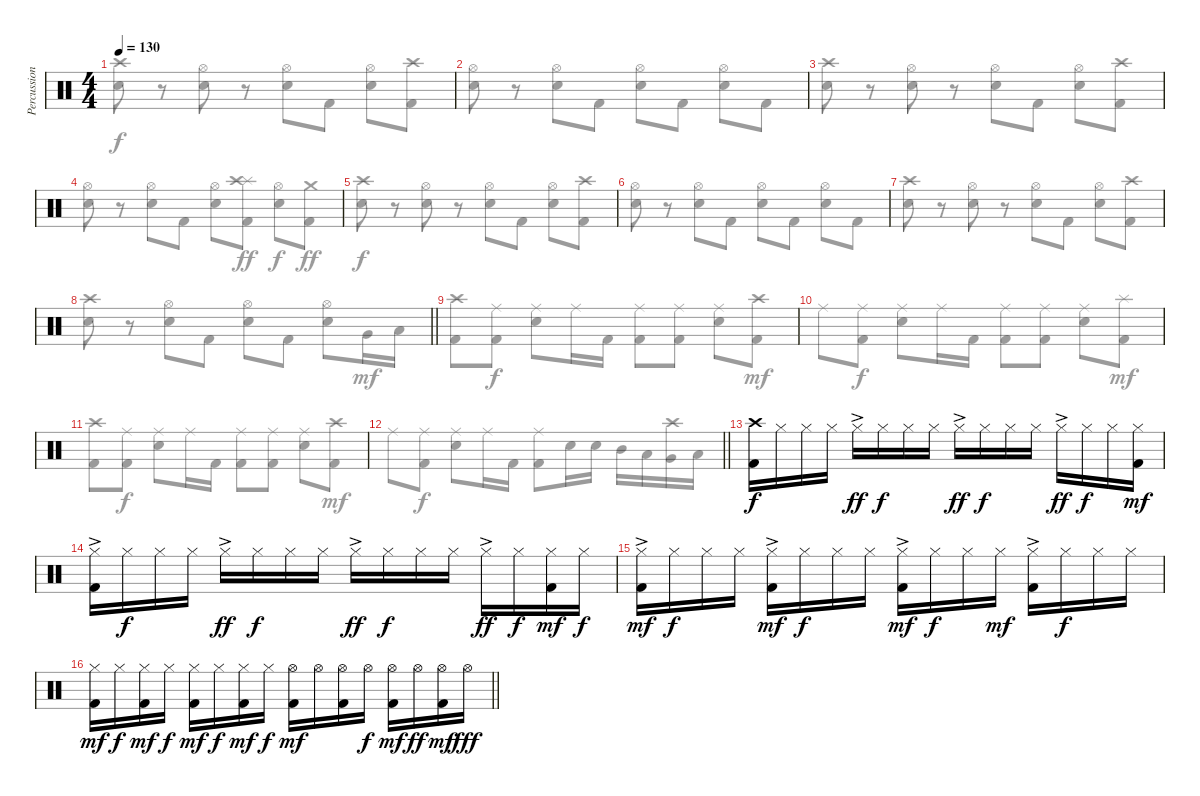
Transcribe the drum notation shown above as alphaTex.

\track ("Percussion" "Percussion") {instrument percussion}
\staff {score}
\articulation defaults
\voice
\ts (4 4)
\tempo 130
\clef neutral
\ks c
|
|
|
|
|
|
|
\barLineRight lightlight
|
|
|
|
\barLineRight lightlight
|
("Crash high (hit)" "Kick (hit) 2").16{dy f} "Hi-Hat (closed)".16 "Hi-Hat (closed)".16 "Hi-Hat (closed)".16 "Hi-Hat (closed)"{ac}.16{dy ff} "Hi-Hat (closed)".16{dy f} "Hi-Hat (closed)".16 "Hi-Hat (closed)".16 "Hi-Hat (closed)"{ac}.16{dy ff} "Hi-Hat (closed)".16{dy f} "Hi-Hat (closed)".16 "Hi-Hat (closed)".16 "Hi-Hat (closed)"{ac}.16{dy ff} "Hi-Hat (closed)".16{dy f} "Hi-Hat (closed)".16 ("Hi-Hat (closed)" "Kick (hit) 2").16{dy mf} |
("Hi-Hat (closed)"{ac} "Kick (hit) 2").16 "Hi-Hat (closed)".16{dy f} "Hi-Hat (closed)".16 "Hi-Hat (closed)".16 "Hi-Hat (closed)"{ac}.16{dy ff} "Hi-Hat (closed)".16{dy f} "Hi-Hat (closed)".16 "Hi-Hat (closed)".16 "Hi-Hat (closed)"{ac}.16{dy ff} "Hi-Hat (closed)".16{dy f} "Hi-Hat (closed)".16 "Hi-Hat (closed)".16 "Hi-Hat (closed)"{ac}.16{dy ff} "Hi-Hat (closed)".16{dy f} ("Hi-Hat (closed)" "Kick (hit) 2").16{dy mf} "Hi-Hat (closed)".16{dy f} |
("Hi-Hat (closed)"{ac} "Kick (hit) 2").16{dy mf} "Hi-Hat (closed)".16{dy f} "Hi-Hat (closed)".16 "Hi-Hat (closed)".16 ("Hi-Hat (closed)"{ac} "Kick (hit) 2").16{dy mf} "Hi-Hat (closed)".16{dy f} "Hi-Hat (closed)".16 "Hi-Hat (closed)".16 ("Hi-Hat (closed)"{ac} "Kick (hit) 2").16{dy mf} "Hi-Hat (closed)".16{dy f} "Hi-Hat (closed)".16 "Hi-Hat (closed)".16{dy mf} ("Hi-Hat (closed)"{ac} "Kick (hit) 2").16 "Hi-Hat (closed)".16{dy f} "Hi-Hat (closed)".16 "Hi-Hat (closed)".16 |
\barLineRight lightlight
("Hi-Hat (closed)" "Kick (hit) 2").16{dy mf} "Hi-Hat (closed)".16{dy f} ("Hi-Hat (closed)" "Kick (hit) 2").16{dy mf} "Hi-Hat (closed)".16{dy f} ("Hi-Hat (closed)" "Kick (hit) 2").16{dy mf} "Hi-Hat (closed)".16{dy f} ("Hi-Hat (closed)" "Kick (hit) 2").16{dy mf} "Hi-Hat (closed)".16{dy f} ("Hi-Hat (open)" "Kick (hit) 2").16{dy mf} "Hi-Hat (open)".16 ("Hi-Hat (open)" "Kick (hit) 2").16 "Hi-Hat (open)".16{dy f} ("Hi-Hat (open)" "Kick (hit) 2").16{dy mf} "Hi-Hat (open)".16{dy ff} ("Hi-Hat (open)" "Kick (hit) 2").16{dy mf} "Hi-Hat (open)".16{dy fff}
\voice
\clef neutral
\ottava regular
\simile none
\ks c
("Crash high (hit)" "Electric Snare (hit)").8{dy f} r.8 ("Hi-Hat (open)" "Electric Snare (hit)").8 r.8 ("Hi-Hat (open)" "Electric Snare (hit)").8 "Kick (hit) 2".8 ("Hi-Hat (open)" "Electric Snare (hit)").8 ("Crash high (hit)" "Kick (hit) 2").8 |
("Hi-Hat (open)" "Electric Snare (hit)").8 r.8 ("Hi-Hat (open)" "Electric Snare (hit)").8 "Kick (hit) 2".8 ("Hi-Hat (open)" "Electric Snare (hit)").8 "Kick (hit) 2".8 ("Hi-Hat (open)" "Electric Snare (hit)").8 "Kick (hit) 2".8 |
("Crash high (hit)" "Electric Snare (hit)").8 r.8 ("Hi-Hat (open)" "Electric Snare (hit)").8 r.8 ("Hi-Hat (open)" "Electric Snare (hit)").8 "Kick (hit) 2".8 ("Hi-Hat (open)" "Electric Snare (hit)").8 ("Crash high (hit)" "Kick (hit) 2").8 |
("Hi-Hat (open)" "Electric Snare (hit)").8 r.8 ("Hi-Hat (open)" "Electric Snare (hit)").8 "Kick (hit) 2".8 ("Hi-Hat (open)" "Electric Snare (hit)").8 ("Splash (hit)" "Crash high (hit)" "Kick (hit) 2").8{dy ff} ("Hi-Hat (open)" "Electric Snare (hit)").8{dy f} ("Crash medium (hit)" "Kick (hit) 2").8{dy ff} |
("Crash high (hit)" "Electric Snare (hit)").8{dy f} r.8 ("Hi-Hat (open)" "Electric Snare (hit)").8 r.8 ("Hi-Hat (open)" "Electric Snare (hit)").8 "Kick (hit) 2".8 ("Hi-Hat (open)" "Electric Snare (hit)").8 ("Crash high (hit)" "Kick (hit) 2").8 |
("Hi-Hat (open)" "Electric Snare (hit)").8 r.8 ("Hi-Hat (open)" "Electric Snare (hit)").8 "Kick (hit) 2".8 ("Hi-Hat (open)" "Electric Snare (hit)").8 "Kick (hit) 2".8 ("Hi-Hat (open)" "Electric Snare (hit)").8 "Kick (hit) 2".8 |
("Crash high (hit)" "Electric Snare (hit)").8 r.8 ("Hi-Hat (open)" "Electric Snare (hit)").8 r.8 ("Hi-Hat (open)" "Electric Snare (hit)").8 "Kick (hit) 2".8 ("Hi-Hat (open)" "Electric Snare (hit)").8 ("Crash high (hit)" "Kick (hit) 2").8 |
\barLineRight lightlight
("Crash high (hit)" "Electric Snare (hit)").8 r.8 ("Hi-Hat (open)" "Electric Snare (hit)").8 "Kick (hit) 2".8 ("Hi-Hat (open)" "Electric Snare (hit)").8 "Kick (hit) 2".8 ("Hi-Hat (open)" "Electric Snare (hit)").8 "Very Low Tom (hit)".16{dy mf} "Low Floor Tom (hit)".16 |
("Crash high (hit)" "Kick (hit) 2").8 ("Ride (middle)" "Kick (hit) 2").8{dy f} ("Ride (middle)" "Electric Snare (hit)").8 "Ride (middle)".16 "Kick (hit) 2".16 ("Ride (middle)" "Kick (hit) 2").8 ("Ride (middle)" "Kick (hit) 2").8 ("Ride (middle)" "Electric Snare (hit)").8 ("Crash high (hit)" "Kick (hit) 2").8{dy mf} |
"Ride (middle)".8 ("Ride (middle)" "Kick (hit) 2").8{dy f} ("Ride (middle)" "Electric Snare (hit)").8 "Ride (middle)".16 "Kick (hit) 2".16 ("Ride (middle)" "Kick (hit) 2").8 ("Ride (middle)" "Kick (hit) 2").8 ("Ride (middle)" "Electric Snare (hit)").8 ("Splash (hit)" "Kick (hit) 2").8{dy mf} |
("Crash high (hit)" "Kick (hit) 2").8 ("Ride (middle)" "Kick (hit) 2").8{dy f} ("Ride (middle)" "Electric Snare (hit)").8 "Ride (middle)".16 "Kick (hit) 2".16 ("Ride (middle)" "Kick (hit) 2").8 ("Ride (middle)" "Kick (hit) 2").8 ("Ride (middle)" "Electric Snare (hit)").8 ("Crash high (hit)" "Kick (hit) 2").8{dy mf} |
\barLineRight lightlight "Ride (middle)".8
("Ride (middle)" "Kick (hit) 2").8{dy f} ("Ride (middle)" "Electric Snare (hit)").8 "Ride (middle)".16 "Kick (hit) 2".16 ("Ride (middle)" "Kick (hit) 2").8 "Electric Snare (hit)".16 "Electric Snare (hit)".16 "Mid Tom (hit)".16 "Low Tom (hit)".16 ("Crash high (hit)" "Very Low Tom (hit)").16 "Low Floor Tom (hit)".16 |
|
|
|
\barLineRight lightlight
